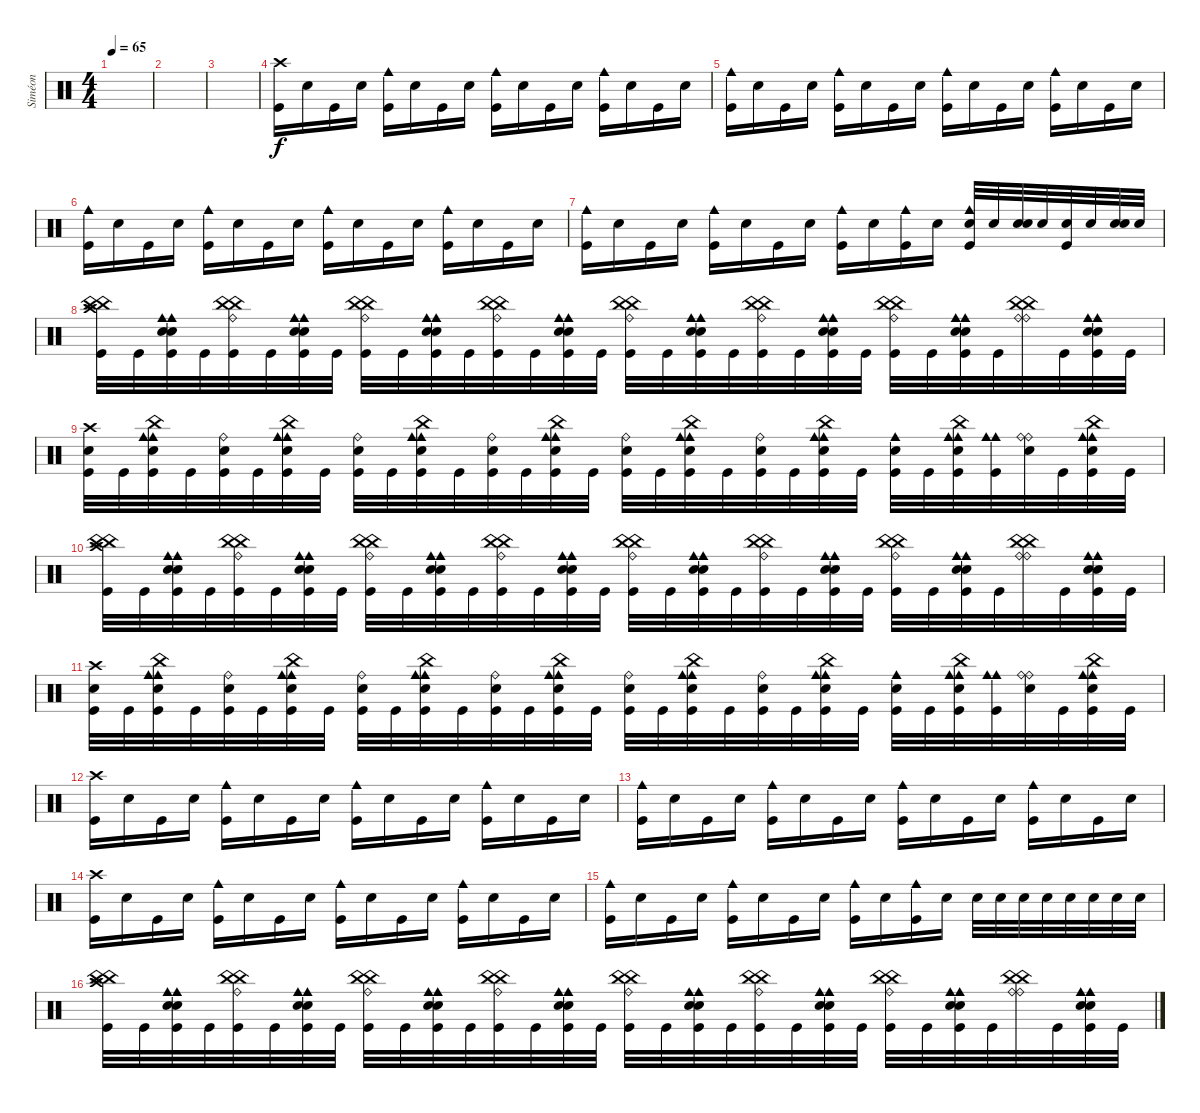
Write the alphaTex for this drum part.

\track ("Siméon" "Siméon") {instrument percussion}
\staff {score}
\articulation defaults
\ts (4 4)
\tempo 65
\clef neutral
\ks c
|
|
|
("Crash high (hit)" "Kick (hit)").16 "Hand Clap (hit)".16 "Kick (hit)".16 "Hand Clap (hit)".16 ("Cowbell medium (hit)" "Kick (hit)").16 "Hand Clap (hit)".16 "Kick (hit)".16 "Hand Clap (hit)".16 ("Cowbell medium (hit)" "Kick (hit)").16 "Hand Clap (hit)".16 "Kick (hit)".16 "Hand Clap (hit)".16 ("Cowbell medium (hit)" "Kick (hit)").16 "Hand Clap (hit)".16 "Kick (hit)".16 "Hand Clap (hit)".16 |
("Cowbell medium (hit)" "Kick (hit)").16 "Hand Clap (hit)".16 "Kick (hit)".16 "Hand Clap (hit)".16 ("Cowbell medium (hit)" "Kick (hit)").16 "Hand Clap (hit)".16 "Kick (hit)".16 "Hand Clap (hit)".16 ("Cowbell medium (hit)" "Kick (hit)").16 "Hand Clap (hit)".16 "Kick (hit)".16 "Hand Clap (hit)".16 ("Cowbell medium (hit)" "Kick (hit)").16 "Hand Clap (hit)".16 "Kick (hit)".16 "Hand Clap (hit)".16 |
("Cowbell medium (hit)" "Kick (hit)").16 "Hand Clap (hit)".16 "Kick (hit)".16 "Hand Clap (hit)".16 ("Cowbell medium (hit)" "Kick (hit)").16 "Hand Clap (hit)".16 "Kick (hit)".16 "Hand Clap (hit)".16 ("Cowbell medium (hit)" "Kick (hit)").16 "Hand Clap (hit)".16 "Kick (hit)".16 "Hand Clap (hit)".16 ("Cowbell medium (hit)" "Kick (hit)").16 "Hand Clap (hit)".16 "Kick (hit)".16 "Hand Clap (hit)".16 |
("Cowbell medium (hit)" "Kick (hit)").16 "Hand Clap (hit)".16 "Kick (hit)".16 "Hand Clap (hit)".16 ("Cowbell medium (hit)" "Kick (hit)").16 "Hand Clap (hit)".16 "Kick (hit)".16 "Hand Clap (hit)".16 ("Cowbell medium (hit)" "Kick (hit)").16 "Hand Clap (hit)".16 ("Cowbell medium (hit)" "Kick (hit)").16 "Hand Clap (hit)".16 ("Cowbell medium (hit)" "Electric Snare (hit)" "Kick (hit)").32 "Electric Snare (hit)".32 ("Electric Snare (hit)" "Hand Clap (hit)").32 "Electric Snare (hit)".32 ("Electric Snare (hit)" "Kick (hit)").32 "Electric Snare (hit)".32 ("Electric Snare (hit)" "Hand Clap (hit)").32 "Electric Snare (hit)".32 |
("China (hit)" "Crash high (hit)" "China (hit)" "Kick (hit)").32 "Kick (hit)".32 ("Cowbell medium (hit)" "Cowbell medium (hit)" "Electric Snare (hit)" "Hand Clap (hit)" "Kick (hit)").32 "Kick (hit)".32 ("China (hit)" "Ride (bell)" "China (hit)" "Kick (hit)").32 "Kick (hit)".32 ("Cowbell medium (hit)" "Cowbell medium (hit)" "Electric Snare (hit)" "Hand Clap (hit)" "Kick (hit)").32 "Kick (hit)".32 ("China (hit)" "Ride (bell)" "China (hit)" "Kick (hit)").32 "Kick (hit)".32 ("Cowbell medium (hit)" "Cowbell medium (hit)" "Electric Snare (hit)" "Hand Clap (hit)" "Kick (hit)").32 "Kick (hit)".32 ("China (hit)" "Ride (bell)" "China (hit)" "Kick (hit)").32 "Kick (hit)".32 ("Cowbell medium (hit)" "Cowbell medium (hit)" "Electric Snare (hit)" "Hand Clap (hit)" "Kick (hit)").32 "Kick (hit)".32 ("China (hit)" "Ride (bell)" "China (hit)" "Kick (hit)").32 "Kick (hit)".32 ("Cowbell medium (hit)" "Cowbell medium (hit)" "Electric Snare (hit)" "Hand Clap (hit)" "Kick (hit)").32 "Kick (hit)".32 ("China (hit)" "Ride (bell)" "China (hit)" "Kick (hit)").32 "Kick (hit)".32 ("Cowbell medium (hit)" "Cowbell medium (hit)" "Electric Snare (hit)" "Hand Clap (hit)" "Kick (hit)").32 "Kick (hit)".32 ("China (hit)" "Ride (bell)" "China (hit)" "Kick (hit)").32 "Kick (hit)".32 ("Cowbell medium (hit)" "Cowbell medium (hit)" "Electric Snare (hit)" "Hand Clap (hit)" "Kick (hit)").32 "Kick (hit)".32 ("China (hit)" "Ride (bell)" "China (hit)" "Ride (bell)").32 "Kick (hit)".32 ("Cowbell medium (hit)" "Cowbell medium (hit)" "Electric Snare (hit)" "Hand Clap (hit)" "Kick (hit)").32 "Kick (hit)".32 |
("Crash high (hit)" "Hand Clap (hit)" "Kick (hit)").32 "Kick (hit)".32 ("Cowbell medium (hit)" "Cowbell medium (hit)" "Electric Snare (hit)" "China (hit)" "Kick (hit)").32 "Kick (hit)".32 ("Ride (bell)" "Hand Clap (hit)" "Kick (hit)").32 "Kick (hit)".32 ("Cowbell medium (hit)" "Cowbell medium (hit)" "Electric Snare (hit)" "China (hit)" "Kick (hit)").32 "Kick (hit)".32 ("Ride (bell)" "Hand Clap (hit)" "Kick (hit)").32 "Kick (hit)".32 ("Cowbell medium (hit)" "Cowbell medium (hit)" "Electric Snare (hit)" "China (hit)" "Kick (hit)").32 "Kick (hit)".32 ("Ride (bell)" "Hand Clap (hit)" "Kick (hit)").32 "Kick (hit)".32 ("Cowbell medium (hit)" "Cowbell medium (hit)" "Electric Snare (hit)" "China (hit)" "Kick (hit)").32 "Kick (hit)".32 ("Ride (bell)" "Hand Clap (hit)" "Kick (hit)").32 "Kick (hit)".32 ("Cowbell medium (hit)" "Cowbell medium (hit)" "Electric Snare (hit)" "China (hit)" "Kick (hit)").32 "Kick (hit)".32 ("Ride (bell)" "Hand Clap (hit)" "Kick (hit)").32 "Kick (hit)".32 ("Cowbell medium (hit)" "Cowbell medium (hit)" "Electric Snare (hit)" "China (hit)" "Kick (hit)").32 "Kick (hit)".32 ("Cowbell medium (hit)" "Hand Clap (hit)" "Kick (hit)").32 "Kick (hit)".32 ("Cowbell medium (hit)" "Cowbell medium (hit)" "Electric Snare (hit)" "China (hit)" "Kick (hit)").32 ("Cowbell medium (hit)" "Cowbell medium (hit)" "Kick (hit)").32 ("Ride (bell)" "Hand Clap (hit)" "Ride (bell)").32 "Kick (hit)".32 ("Cowbell medium (hit)" "Cowbell medium (hit)" "Electric Snare (hit)" "China (hit)" "Kick (hit)").32 "Kick (hit)".32 |
("China (hit)" "Crash high (hit)" "China (hit)" "Kick (hit)").32 "Kick (hit)".32 ("Cowbell medium (hit)" "Cowbell medium (hit)" "Electric Snare (hit)" "Hand Clap (hit)" "Kick (hit)").32 "Kick (hit)".32 ("China (hit)" "Ride (bell)" "China (hit)" "Kick (hit)").32 "Kick (hit)".32 ("Cowbell medium (hit)" "Cowbell medium (hit)" "Electric Snare (hit)" "Hand Clap (hit)" "Kick (hit)").32 "Kick (hit)".32 ("China (hit)" "Ride (bell)" "China (hit)" "Kick (hit)").32 "Kick (hit)".32 ("Cowbell medium (hit)" "Cowbell medium (hit)" "Electric Snare (hit)" "Hand Clap (hit)" "Kick (hit)").32 "Kick (hit)".32 ("China (hit)" "Ride (bell)" "China (hit)" "Kick (hit)").32 "Kick (hit)".32 ("Cowbell medium (hit)" "Cowbell medium (hit)" "Electric Snare (hit)" "Hand Clap (hit)" "Kick (hit)").32 "Kick (hit)".32 ("China (hit)" "Ride (bell)" "China (hit)" "Kick (hit)").32 "Kick (hit)".32 ("Cowbell medium (hit)" "Cowbell medium (hit)" "Electric Snare (hit)" "Hand Clap (hit)" "Kick (hit)").32 "Kick (hit)".32 ("China (hit)" "Ride (bell)" "China (hit)" "Kick (hit)").32 "Kick (hit)".32 ("Cowbell medium (hit)" "Cowbell medium (hit)" "Electric Snare (hit)" "Hand Clap (hit)" "Kick (hit)").32 "Kick (hit)".32 ("China (hit)" "Ride (bell)" "China (hit)" "Kick (hit)").32 "Kick (hit)".32 ("Cowbell medium (hit)" "Cowbell medium (hit)" "Electric Snare (hit)" "Hand Clap (hit)" "Kick (hit)").32 "Kick (hit)".32 ("China (hit)" "Ride (bell)" "China (hit)" "Ride (bell)").32 "Kick (hit)".32 ("Cowbell medium (hit)" "Cowbell medium (hit)" "Electric Snare (hit)" "Hand Clap (hit)" "Kick (hit)").32 "Kick (hit)".32 |
("Crash high (hit)" "Hand Clap (hit)" "Kick (hit)").32 "Kick (hit)".32 ("Cowbell medium (hit)" "Cowbell medium (hit)" "Electric Snare (hit)" "China (hit)" "Kick (hit)").32 "Kick (hit)".32 ("Ride (bell)" "Hand Clap (hit)" "Kick (hit)").32 "Kick (hit)".32 ("Cowbell medium (hit)" "Cowbell medium (hit)" "Electric Snare (hit)" "China (hit)" "Kick (hit)").32 "Kick (hit)".32 ("Ride (bell)" "Hand Clap (hit)" "Kick (hit)").32 "Kick (hit)".32 ("Cowbell medium (hit)" "Cowbell medium (hit)" "Electric Snare (hit)" "China (hit)" "Kick (hit)").32 "Kick (hit)".32 ("Ride (bell)" "Hand Clap (hit)" "Kick (hit)").32 "Kick (hit)".32 ("Cowbell medium (hit)" "Cowbell medium (hit)" "Electric Snare (hit)" "China (hit)" "Kick (hit)").32 "Kick (hit)".32 ("Ride (bell)" "Hand Clap (hit)" "Kick (hit)").32 "Kick (hit)".32 ("Cowbell medium (hit)" "Cowbell medium (hit)" "Electric Snare (hit)" "China (hit)" "Kick (hit)").32 "Kick (hit)".32 ("Ride (bell)" "Hand Clap (hit)" "Kick (hit)").32 "Kick (hit)".32 ("Cowbell medium (hit)" "Cowbell medium (hit)" "Electric Snare (hit)" "China (hit)" "Kick (hit)").32 "Kick (hit)".32 ("Cowbell medium (hit)" "Hand Clap (hit)" "Kick (hit)").32 "Kick (hit)".32 ("Cowbell medium (hit)" "Cowbell medium (hit)" "Electric Snare (hit)" "China (hit)" "Kick (hit)").32 ("Cowbell medium (hit)" "Cowbell medium (hit)" "Kick (hit)").32 ("Ride (bell)" "Hand Clap (hit)" "Ride (bell)").32 "Kick (hit)".32 ("Cowbell medium (hit)" "Cowbell medium (hit)" "Electric Snare (hit)" "China (hit)" "Kick (hit)").32 "Kick (hit)".32 |
("Crash high (hit)" "Kick (hit)").16 "Hand Clap (hit)".16 "Kick (hit)".16 "Hand Clap (hit)".16 ("Cowbell medium (hit)" "Kick (hit)").16 "Hand Clap (hit)".16 "Kick (hit)".16 "Hand Clap (hit)".16 ("Cowbell medium (hit)" "Kick (hit)").16 "Hand Clap (hit)".16 "Kick (hit)".16 "Hand Clap (hit)".16 ("Cowbell medium (hit)" "Kick (hit)").16 "Hand Clap (hit)".16 "Kick (hit)".16 "Hand Clap (hit)".16 |
("Cowbell medium (hit)" "Kick (hit)").16 "Hand Clap (hit)".16 "Kick (hit)".16 "Hand Clap (hit)".16 ("Cowbell medium (hit)" "Kick (hit)").16 "Hand Clap (hit)".16 "Kick (hit)".16 "Hand Clap (hit)".16 ("Cowbell medium (hit)" "Kick (hit)").16 "Hand Clap (hit)".16 "Kick (hit)".16 "Hand Clap (hit)".16 ("Cowbell medium (hit)" "Kick (hit)").16 "Hand Clap (hit)".16 "Kick (hit)".16 "Hand Clap (hit)".16 |
("Crash high (hit)" "Kick (hit)").16 "Hand Clap (hit)".16 "Kick (hit)".16 "Hand Clap (hit)".16 ("Cowbell medium (hit)" "Kick (hit)").16 "Hand Clap (hit)".16 "Kick (hit)".16 "Hand Clap (hit)".16 ("Cowbell medium (hit)" "Kick (hit)").16 "Hand Clap (hit)".16 "Kick (hit)".16 "Hand Clap (hit)".16 ("Cowbell medium (hit)" "Kick (hit)").16 "Hand Clap (hit)".16 "Kick (hit)".16 "Hand Clap (hit)".16 |
("Cowbell medium (hit)" "Kick (hit)").16 "Hand Clap (hit)".16 "Kick (hit)".16 "Hand Clap (hit)".16 ("Cowbell medium (hit)" "Kick (hit)").16 "Hand Clap (hit)".16 "Kick (hit)".16 "Hand Clap (hit)".16 ("Cowbell medium (hit)" "Kick (hit)").16 "Hand Clap (hit)".16 ("Cowbell medium (hit)" "Kick (hit)").16 "Hand Clap (hit)".16 "Electric Snare (hit)".32 "Electric Snare (hit)".32 "Electric Snare (hit)".32 "Electric Snare (hit)".32 "Electric Snare (hit)".32 "Electric Snare (hit)".32 "Electric Snare (hit)".32 "Electric Snare (hit)".32 |
("China (hit)" "Crash high (hit)" "China (hit)" "Kick (hit)").32 "Kick (hit)".32 ("Cowbell medium (hit)" "Cowbell medium (hit)" "Electric Snare (hit)" "Hand Clap (hit)" "Kick (hit)").32 "Kick (hit)".32 ("China (hit)" "Ride (bell)" "China (hit)" "Kick (hit)").32 "Kick (hit)".32 ("Cowbell medium (hit)" "Cowbell medium (hit)" "Electric Snare (hit)" "Hand Clap (hit)" "Kick (hit)").32 "Kick (hit)".32 ("China (hit)" "Ride (bell)" "China (hit)" "Kick (hit)").32 "Kick (hit)".32 ("Cowbell medium (hit)" "Cowbell medium (hit)" "Electric Snare (hit)" "Hand Clap (hit)" "Kick (hit)").32 "Kick (hit)".32 ("China (hit)" "Ride (bell)" "China (hit)" "Kick (hit)").32 "Kick (hit)".32 ("Cowbell medium (hit)" "Cowbell medium (hit)" "Electric Snare (hit)" "Hand Clap (hit)" "Kick (hit)").32 "Kick (hit)".32 ("China (hit)" "Ride (bell)" "China (hit)" "Kick (hit)").32 "Kick (hit)".32 ("Cowbell medium (hit)" "Cowbell medium (hit)" "Electric Snare (hit)" "Hand Clap (hit)" "Kick (hit)").32 "Kick (hit)".32 ("China (hit)" "Ride (bell)" "China (hit)" "Kick (hit)").32 "Kick (hit)".32 ("Cowbell medium (hit)" "Cowbell medium (hit)" "Electric Snare (hit)" "Hand Clap (hit)" "Kick (hit)").32 "Kick (hit)".32 ("China (hit)" "Ride (bell)" "China (hit)" "Kick (hit)").32 "Kick (hit)".32 ("Cowbell medium (hit)" "Cowbell medium (hit)" "Electric Snare (hit)" "Hand Clap (hit)" "Kick (hit)").32 "Kick (hit)".32 ("China (hit)" "Ride (bell)" "China (hit)" "Ride (bell)").32 "Kick (hit)".32 ("Cowbell medium (hit)" "Cowbell medium (hit)" "Electric Snare (hit)" "Hand Clap (hit)" "Kick (hit)").32 "Kick (hit)".32
